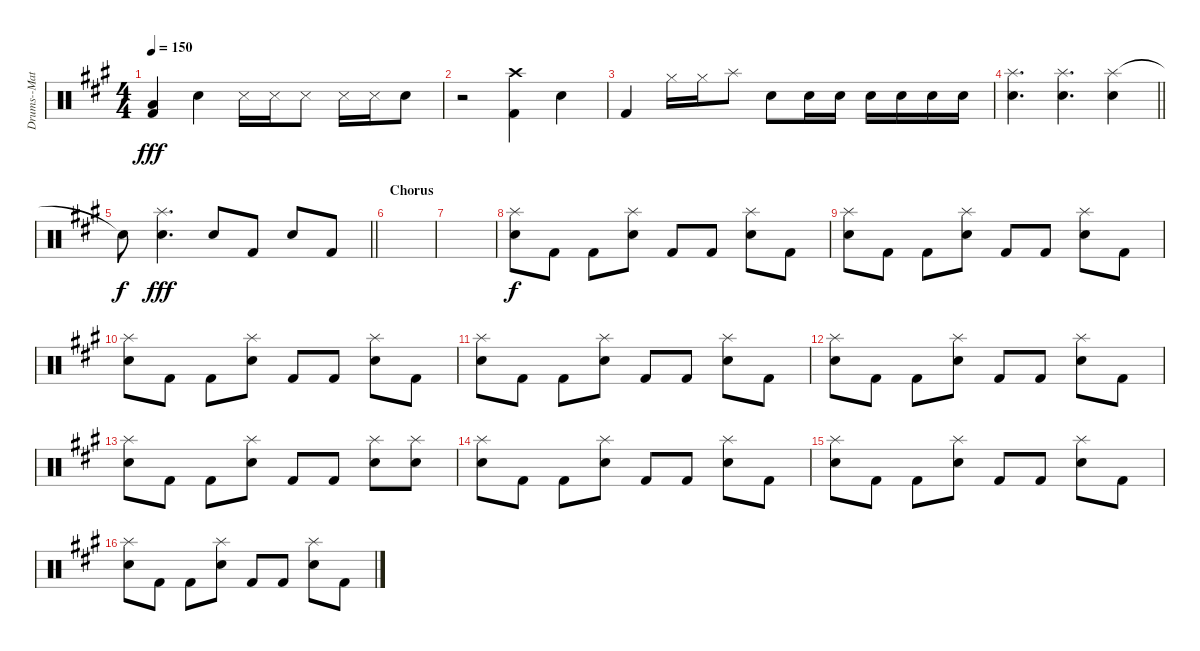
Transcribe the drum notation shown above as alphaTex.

\track ("Drums--Matt Whalen" "Drums--Mat") {instrument percussion}
\staff {score}
\articulation defaults
\ts (4 4)
\tempo 150
\clef neutral
\ks a
("Kick (hit) 2" "Low Floor Tom (hit)").4{dy fff} "Snare (hit) 2".4 "Metronome (hit)".16 "Metronome (hit)".16 "Metronome (hit)".8 "Metronome (hit)".16 "Metronome (hit)".16 "Metronome (bell)".8 |
r.2 ("Crash high (hit)" "Kick (hit) 2").4 "Snare (hit) 2".4 |
"Kick (hit) 2".4 "Hi-Hat (closed)".16 "Hi-Hat (closed)".16 "Splash (hit)".8 "Snare (hit) 2".8 "Snare (hit) 2".16 "Snare (hit) 2".16 "Snare (hit) 2".16 "Snare (hit) 2".16 "Snare (hit) 2".16 "Snare (hit) 2".16 |
\barLineRight lightlight
("Splash (hit)" "Snare (hit) 2").4{d} ("Splash (hit)" "Snare (hit) 2").4{d} ("Splash (hit)" "Snare (hit) 2").4 |
\barLineRight lightlight "Snare (hit)"{t}.8{dy f}
("Splash (hit)" "Snare (hit) 2").4{d dy fff} "Snare (hit) 2".8 "Kick (hit) 2".8 "Snare (hit) 2".8 "Kick (hit) 2".8 |
\section ("" "Chorus")
|
|
("Snare (hit) 2" "Splash (hit)").8{dy f} "Kick (hit) 2".8 "Kick (hit) 2".8 ("Snare (hit) 2" "Splash (hit)").8 "Kick (hit) 2".8 "Kick (hit) 2".8 ("Snare (hit) 2" "Splash (hit)").8 "Kick (hit) 2".8 |
("Snare (hit) 2" "Splash (hit)").8 "Kick (hit) 2".8 "Kick (hit) 2".8 ("Snare (hit) 2" "Splash (hit)").8 "Kick (hit) 2".8 "Kick (hit) 2".8 ("Snare (hit) 2" "Splash (hit)").8 "Kick (hit) 2".8 |
("Snare (hit) 2" "Splash (hit)").8 "Kick (hit) 2".8 "Kick (hit) 2".8 ("Snare (hit) 2" "Splash (hit)").8 "Kick (hit) 2".8 "Kick (hit) 2".8 ("Snare (hit) 2" "Splash (hit)").8 "Kick (hit) 2".8 |
("Snare (hit) 2" "Splash (hit)").8 "Kick (hit) 2".8 "Kick (hit) 2".8 ("Snare (hit) 2" "Splash (hit)").8 "Kick (hit) 2".8 "Kick (hit) 2".8 ("Snare (hit) 2" "Splash (hit)").8 "Kick (hit) 2".8 |
("Snare (hit) 2" "Splash (hit)").8 "Kick (hit) 2".8 "Kick (hit) 2".8 ("Snare (hit) 2" "Splash (hit)").8 "Kick (hit) 2".8 "Kick (hit) 2".8 ("Snare (hit) 2" "Splash (hit)").8 "Kick (hit) 2".8 |
("Snare (hit) 2" "Splash (hit)").8 "Kick (hit) 2".8 "Kick (hit) 2".8 ("Snare (hit) 2" "Splash (hit)").8 "Kick (hit) 2".8 "Kick (hit) 2".8 ("Snare (hit) 2" "Splash (hit)").8 ("Snare (hit) 2" "Splash (hit)").8 |
("Snare (hit) 2" "Splash (hit)").8 "Kick (hit) 2".8 "Kick (hit) 2".8 ("Snare (hit) 2" "Splash (hit)").8 "Kick (hit) 2".8 "Kick (hit) 2".8 ("Snare (hit) 2" "Splash (hit)").8 "Kick (hit) 2".8 |
("Snare (hit) 2" "Splash (hit)").8 "Kick (hit) 2".8 "Kick (hit) 2".8 ("Snare (hit) 2" "Splash (hit)").8 "Kick (hit) 2".8 "Kick (hit) 2".8 ("Snare (hit) 2" "Splash (hit)").8 "Kick (hit) 2".8 |
("Snare (hit) 2" "Splash (hit)").8 "Kick (hit) 2".8 "Kick (hit) 2".8 ("Snare (hit) 2" "Splash (hit)").8 "Kick (hit) 2".8 "Kick (hit) 2".8 ("Snare (hit) 2" "Splash (hit)").8 "Kick (hit) 2".8
